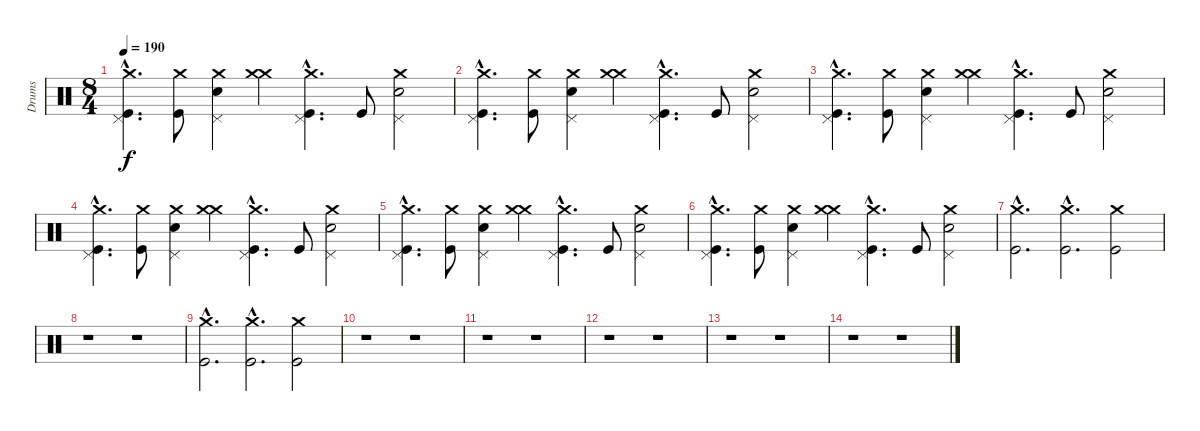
\track ("Drums" "Drums") {instrument percussion}
\staff {score}
\articulation defaults
\ts (8 4)
\tempo 190
\clef neutral
\ks c
("Crash medium (hit)"{hac} "Pedal Hi-Hat (hit)"{hac} "Kick (hit)"{hac}).4{d dy f} ("Crash medium (hit)" "Kick (hit)").8 ("Pedal Hi-Hat (hit)" "Electric Snare (hit)" "Crash medium (hit)").4 ("Crash medium (hit)" "Crash medium (hit)").4 ("Pedal Hi-Hat (hit)"{hac} "Crash medium (hit)"{hac} "Kick (hit)"{hac}).4{d} "Kick (hit)".8 ("Pedal Hi-Hat (hit)" "Electric Snare (hit)" "Crash medium (hit)").2 |
("Crash medium (hit)"{hac} "Pedal Hi-Hat (hit)"{hac} "Kick (hit)"{hac}).4{d} ("Crash medium (hit)" "Kick (hit)").8 ("Pedal Hi-Hat (hit)" "Electric Snare (hit)" "Crash medium (hit)").4 ("Crash medium (hit)" "Crash medium (hit)").4 ("Pedal Hi-Hat (hit)"{hac} "Crash medium (hit)"{hac} "Kick (hit)"{hac}).4{d} "Kick (hit)".8 ("Pedal Hi-Hat (hit)" "Electric Snare (hit)" "Crash medium (hit)").2 |
("Crash medium (hit)"{hac} "Pedal Hi-Hat (hit)"{hac} "Kick (hit)"{hac}).4{d} ("Crash medium (hit)" "Kick (hit)").8 ("Pedal Hi-Hat (hit)" "Electric Snare (hit)" "Crash medium (hit)").4 ("Crash medium (hit)" "Crash medium (hit)").4 ("Pedal Hi-Hat (hit)"{hac} "Crash medium (hit)"{hac} "Kick (hit)"{hac}).4{d} "Kick (hit)".8 ("Pedal Hi-Hat (hit)" "Electric Snare (hit)" "Crash medium (hit)").2 |
("Crash medium (hit)"{hac} "Pedal Hi-Hat (hit)"{hac} "Kick (hit)"{hac}).4{d} ("Crash medium (hit)" "Kick (hit)").8 ("Pedal Hi-Hat (hit)" "Electric Snare (hit)" "Crash medium (hit)").4 ("Crash medium (hit)" "Crash medium (hit)").4 ("Pedal Hi-Hat (hit)"{hac} "Crash medium (hit)"{hac} "Kick (hit)"{hac}).4{d} "Kick (hit)".8 ("Pedal Hi-Hat (hit)" "Electric Snare (hit)" "Crash medium (hit)").2 |
("Crash medium (hit)"{hac} "Pedal Hi-Hat (hit)"{hac} "Kick (hit)"{hac}).4{d} ("Crash medium (hit)" "Kick (hit)").8 ("Pedal Hi-Hat (hit)" "Electric Snare (hit)" "Crash medium (hit)").4 ("Crash medium (hit)" "Crash medium (hit)").4 ("Pedal Hi-Hat (hit)"{hac} "Crash medium (hit)"{hac} "Kick (hit)"{hac}).4{d} "Kick (hit)".8 ("Pedal Hi-Hat (hit)" "Electric Snare (hit)" "Crash medium (hit)").2 |
("Crash medium (hit)"{hac} "Pedal Hi-Hat (hit)"{hac} "Kick (hit)"{hac}).4{d} ("Crash medium (hit)" "Kick (hit)").8 ("Pedal Hi-Hat (hit)" "Electric Snare (hit)" "Crash medium (hit)").4 ("Crash medium (hit)" "Crash medium (hit)").4 ("Pedal Hi-Hat (hit)"{hac} "Crash medium (hit)"{hac} "Kick (hit)"{hac}).4{d} "Kick (hit)".8 ("Pedal Hi-Hat (hit)" "Electric Snare (hit)" "Crash medium (hit)").2 |
("Crash medium (hit)"{hac} "Kick (hit)"{hac}).2{d} ("Crash medium (hit)"{hac} "Kick (hit)"{hac}).2{d} ("Crash medium (hit)" "Kick (hit)").2 |
r.1 r.1 |
("Crash medium (hit)"{hac} "Kick (hit)"{hac}).2{d} ("Crash medium (hit)"{hac} "Kick (hit)"{hac}).2{d} ("Crash medium (hit)" "Kick (hit)").2 |
r.1 r.1 |
r.1 r.1 |
r.1 r.1 |
r.1 r.1 |
r.1 r.1
